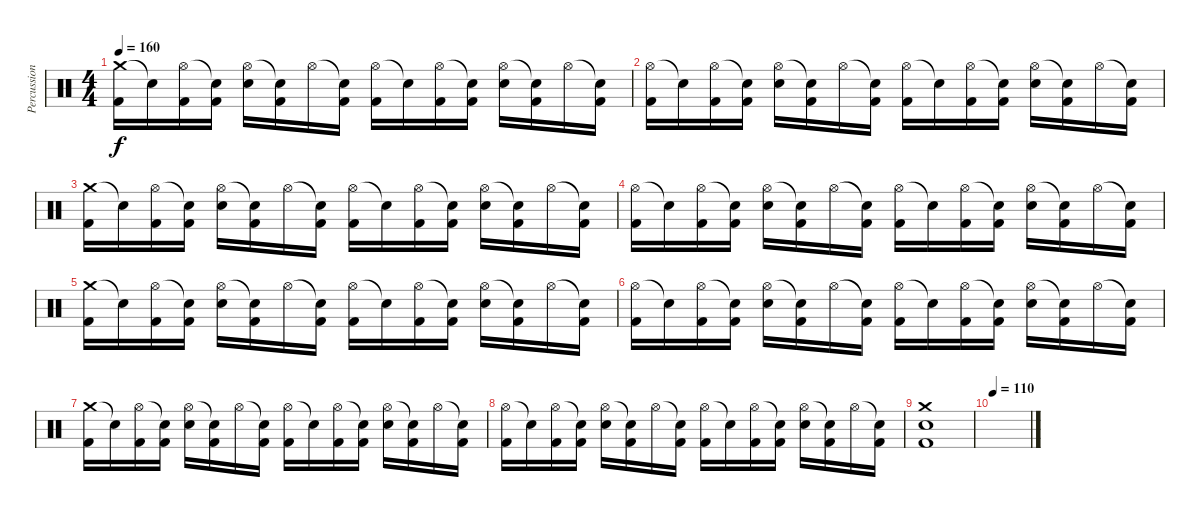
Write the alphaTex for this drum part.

\track ("Percussion" "Percussion") {instrument percussion}
\staff {score}
\articulation defaults
\ts (4 4)
\tempo 160
\clef neutral
\ks c
("Crash medium (hit)" "Kick (hit) 2").16{dy f} "Snare (hit)"{t}.16 ("Hi-Hat (open)" "Kick (hit) 2").16 ("Snare (hit)"{t} "Kick (hit) 2").16 ("Hi-Hat (open)" "Electric Snare (hit)").16 ("Snare (hit)"{t} "Kick (hit) 2").16 "Hi-Hat (open)".16 ("Snare (hit)"{t} "Kick (hit) 2").16 ("Hi-Hat (open)" "Kick (hit) 2").16 "Snare (hit)"{t}.16 ("Hi-Hat (open)" "Kick (hit) 2").16 ("Snare (hit)"{t} "Kick (hit) 2").16 ("Hi-Hat (open)" "Electric Snare (hit)").16 ("Snare (hit)"{t} "Kick (hit) 2").16 "Hi-Hat (open)".16 ("Snare (hit)"{t} "Kick (hit) 2").16 |
("Hi-Hat (open)" "Kick (hit) 2").16 "Snare (hit)"{t}.16 ("Hi-Hat (open)" "Kick (hit) 2").16 ("Snare (hit)"{t} "Kick (hit) 2").16 ("Hi-Hat (open)" "Electric Snare (hit)").16 ("Snare (hit)"{t} "Kick (hit) 2").16 "Hi-Hat (open)".16 ("Snare (hit)"{t} "Kick (hit) 2").16 ("Hi-Hat (open)" "Kick (hit) 2").16 "Snare (hit)"{t}.16 ("Hi-Hat (open)" "Kick (hit) 2").16 ("Snare (hit)"{t} "Kick (hit) 2").16 ("Hi-Hat (open)" "Electric Snare (hit)").16 ("Snare (hit)"{t} "Kick (hit) 2").16 "Hi-Hat (open)".16 ("Snare (hit)"{t} "Kick (hit) 2").16 |
("Crash medium (hit)" "Kick (hit) 2").16 "Snare (hit)"{t}.16 ("Hi-Hat (open)" "Kick (hit) 2").16 ("Snare (hit)"{t} "Kick (hit) 2").16 ("Hi-Hat (open)" "Electric Snare (hit)").16 ("Snare (hit)"{t} "Kick (hit) 2").16 "Hi-Hat (open)".16 ("Snare (hit)"{t} "Kick (hit) 2").16 ("Hi-Hat (open)" "Kick (hit) 2").16 "Snare (hit)"{t}.16 ("Hi-Hat (open)" "Kick (hit) 2").16 ("Snare (hit)"{t} "Kick (hit) 2").16 ("Hi-Hat (open)" "Electric Snare (hit)").16 ("Snare (hit)"{t} "Kick (hit) 2").16 "Hi-Hat (open)".16 ("Snare (hit)"{t} "Kick (hit) 2").16 |
("Hi-Hat (open)" "Kick (hit) 2").16 "Snare (hit)"{t}.16 ("Hi-Hat (open)" "Kick (hit) 2").16 ("Snare (hit)"{t} "Kick (hit) 2").16 ("Hi-Hat (open)" "Electric Snare (hit)").16 ("Snare (hit)"{t} "Kick (hit) 2").16 "Hi-Hat (open)".16 ("Snare (hit)"{t} "Kick (hit) 2").16 ("Hi-Hat (open)" "Kick (hit) 2").16 "Snare (hit)"{t}.16 ("Hi-Hat (open)" "Kick (hit) 2").16 ("Snare (hit)"{t} "Kick (hit) 2").16 ("Hi-Hat (open)" "Electric Snare (hit)").16 ("Snare (hit)"{t} "Kick (hit) 2").16 "Hi-Hat (open)".16 ("Snare (hit)"{t} "Kick (hit) 2").16 |
("Crash medium (hit)" "Kick (hit) 2").16 "Snare (hit)"{t}.16 ("Hi-Hat (open)" "Kick (hit) 2").16 ("Snare (hit)"{t} "Kick (hit) 2").16 ("Hi-Hat (open)" "Electric Snare (hit)").16 ("Snare (hit)"{t} "Kick (hit) 2").16 "Hi-Hat (open)".16 ("Snare (hit)"{t} "Kick (hit) 2").16 ("Hi-Hat (open)" "Kick (hit) 2").16 "Snare (hit)"{t}.16 ("Hi-Hat (open)" "Kick (hit) 2").16 ("Snare (hit)"{t} "Kick (hit) 2").16 ("Hi-Hat (open)" "Electric Snare (hit)").16 ("Snare (hit)"{t} "Kick (hit) 2").16 "Hi-Hat (open)".16 ("Snare (hit)"{t} "Kick (hit) 2").16 |
("Hi-Hat (open)" "Kick (hit) 2").16 "Snare (hit)"{t}.16 ("Hi-Hat (open)" "Kick (hit) 2").16 ("Snare (hit)"{t} "Kick (hit) 2").16 ("Hi-Hat (open)" "Electric Snare (hit)").16 ("Snare (hit)"{t} "Kick (hit) 2").16 "Hi-Hat (open)".16 ("Snare (hit)"{t} "Kick (hit) 2").16 ("Hi-Hat (open)" "Kick (hit) 2").16 "Snare (hit)"{t}.16 ("Hi-Hat (open)" "Kick (hit) 2").16 ("Snare (hit)"{t} "Kick (hit) 2").16 ("Hi-Hat (open)" "Electric Snare (hit)").16 ("Snare (hit)"{t} "Kick (hit) 2").16 "Hi-Hat (open)".16 ("Snare (hit)"{t} "Kick (hit) 2").16 |
("Crash medium (hit)" "Kick (hit) 2").16 "Snare (hit)"{t}.16 ("Hi-Hat (open)" "Kick (hit) 2").16 ("Snare (hit)"{t} "Kick (hit) 2").16 ("Hi-Hat (open)" "Electric Snare (hit)").16 ("Snare (hit)"{t} "Kick (hit) 2").16 "Hi-Hat (open)".16 ("Snare (hit)"{t} "Kick (hit) 2").16 ("Hi-Hat (open)" "Kick (hit) 2").16 "Snare (hit)"{t}.16 ("Hi-Hat (open)" "Kick (hit) 2").16 ("Snare (hit)"{t} "Kick (hit) 2").16 ("Hi-Hat (open)" "Electric Snare (hit)").16 ("Snare (hit)"{t} "Kick (hit) 2").16 "Hi-Hat (open)".16 ("Snare (hit)"{t} "Kick (hit) 2").16 |
("Hi-Hat (open)" "Kick (hit) 2").16 "Snare (hit)"{t}.16 ("Hi-Hat (open)" "Kick (hit) 2").16 ("Snare (hit)"{t} "Kick (hit) 2").16 ("Hi-Hat (open)" "Electric Snare (hit)").16 ("Snare (hit)"{t} "Kick (hit) 2").16 "Hi-Hat (open)".16 ("Snare (hit)"{t} "Kick (hit) 2").16 ("Hi-Hat (open)" "Kick (hit) 2").16 "Snare (hit)"{t}.16 ("Hi-Hat (open)" "Kick (hit) 2").16 ("Snare (hit)"{t} "Kick (hit) 2").16 ("Hi-Hat (open)" "Electric Snare (hit)").16 ("Snare (hit)"{t} "Kick (hit) 2").16 "Hi-Hat (open)".16 ("Snare (hit)"{t} "Kick (hit) 2").16 |
("Crash medium (hit)" "Electric Snare (hit)" "Kick (hit) 2").1 |
\tempo 110
